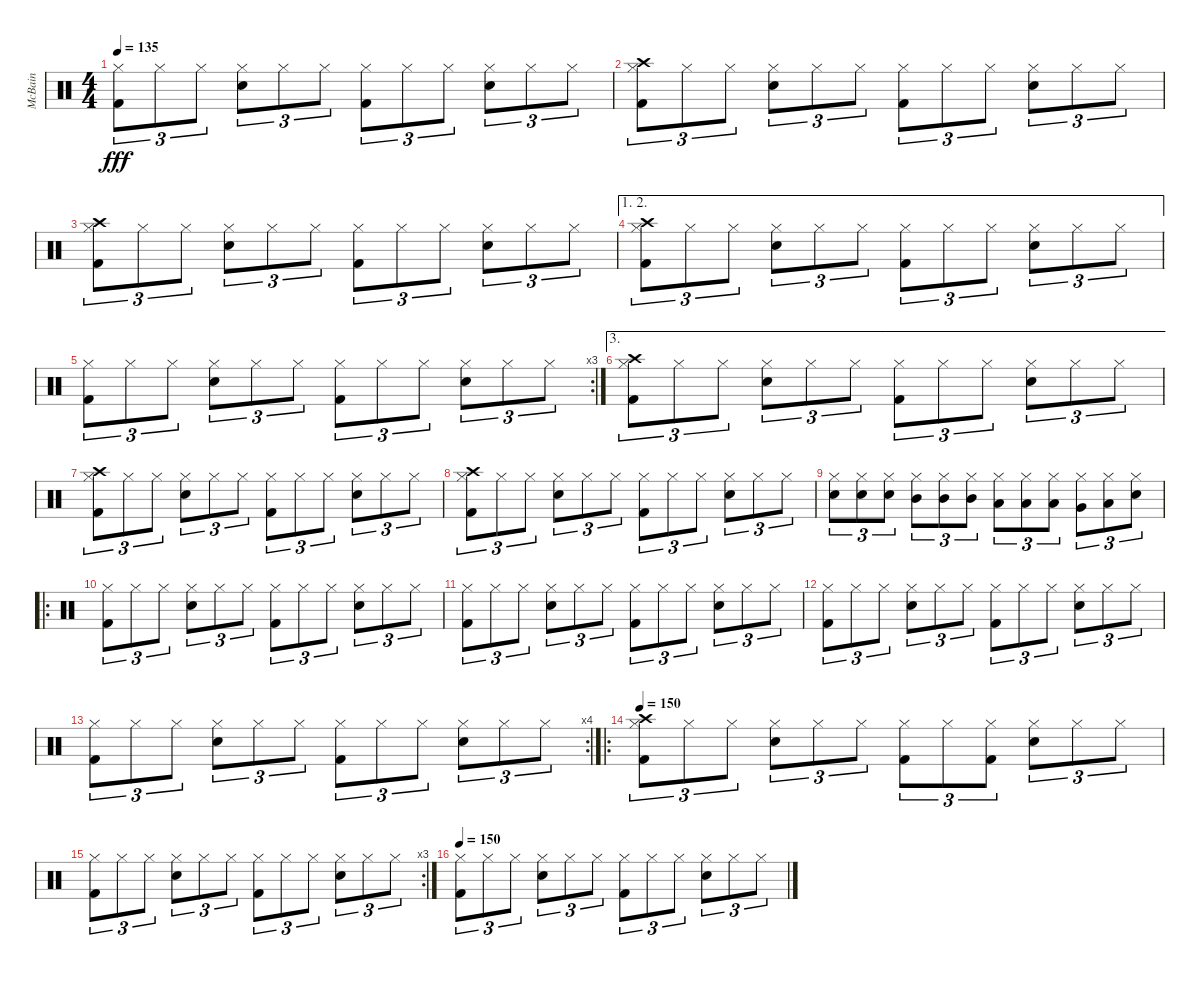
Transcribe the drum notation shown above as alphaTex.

\track ("McBain" "McBain") {instrument percussion}
\staff {score}
\articulation defaults
\ts (4 4)
\tempo 135
\clef neutral
\ks c
("Hi-Hat (closed)" "Kick (hit) 2").8{tu (3 2) dy fff} "Hi-Hat (closed)".8{tu (3 2)} "Hi-Hat (closed)".8{tu (3 2)} ("Hi-Hat (closed)" "Snare (hit) 2").8{tu (3 2)} "Hi-Hat (closed)".8{tu (3 2)} "Hi-Hat (closed)".8{tu (3 2)} ("Hi-Hat (closed)" "Kick (hit) 2").8{tu (3 2)} "Hi-Hat (closed)".8{tu (3 2)} "Hi-Hat (closed)".8{tu (3 2)} ("Hi-Hat (closed)" "Snare (hit) 2").8{tu (3 2)} "Hi-Hat (closed)".8{tu (3 2)} "Hi-Hat (closed)".8{tu (3 2)} |
("Hi-Hat (closed)" "Kick (hit) 2" "Crash high (hit)").8{tu (3 2)} "Hi-Hat (closed)".8{tu (3 2)} "Hi-Hat (closed)".8{tu (3 2)} ("Hi-Hat (closed)" "Snare (hit) 2").8{tu (3 2)} "Hi-Hat (closed)".8{tu (3 2)} "Hi-Hat (closed)".8{tu (3 2)} ("Hi-Hat (closed)" "Kick (hit) 2").8{tu (3 2)} "Hi-Hat (closed)".8{tu (3 2)} "Hi-Hat (closed)".8{tu (3 2)} ("Hi-Hat (closed)" "Snare (hit) 2").8{tu (3 2)} "Hi-Hat (closed)".8{tu (3 2)} "Hi-Hat (closed)".8{tu (3 2)} |
("Hi-Hat (closed)" "Kick (hit) 2" "Crash high (hit)").8{tu (3 2)} "Hi-Hat (closed)".8{tu (3 2)} "Hi-Hat (closed)".8{tu (3 2)} ("Hi-Hat (closed)" "Snare (hit) 2").8{tu (3 2)} "Hi-Hat (closed)".8{tu (3 2)} "Hi-Hat (closed)".8{tu (3 2)} ("Hi-Hat (closed)" "Kick (hit) 2").8{tu (3 2)} "Hi-Hat (closed)".8{tu (3 2)} "Hi-Hat (closed)".8{tu (3 2)} ("Hi-Hat (closed)" "Snare (hit) 2").8{tu (3 2)} "Hi-Hat (closed)".8{tu (3 2)} "Hi-Hat (closed)".8{tu (3 2)} |
\ae (1 2)
("Hi-Hat (closed)" "Kick (hit) 2" "Crash high (hit)").8{tu (3 2)} "Hi-Hat (closed)".8{tu (3 2)} "Hi-Hat (closed)".8{tu (3 2)} ("Hi-Hat (closed)" "Snare (hit) 2").8{tu (3 2)} "Hi-Hat (closed)".8{tu (3 2)} "Hi-Hat (closed)".8{tu (3 2)} ("Hi-Hat (closed)" "Kick (hit) 2").8{tu (3 2)} "Hi-Hat (closed)".8{tu (3 2)} "Hi-Hat (closed)".8{tu (3 2)} ("Hi-Hat (closed)" "Snare (hit) 2").8{tu (3 2)} "Hi-Hat (closed)".8{tu (3 2)} "Hi-Hat (closed)".8{tu (3 2)} |
\rc 3
("Hi-Hat (closed)" "Kick (hit) 2").8{tu (3 2)} "Hi-Hat (closed)".8{tu (3 2)} "Hi-Hat (closed)".8{tu (3 2)} ("Hi-Hat (closed)" "Snare (hit) 2").8{tu (3 2)} "Hi-Hat (closed)".8{tu (3 2)} "Hi-Hat (closed)".8{tu (3 2)} ("Hi-Hat (closed)" "Kick (hit) 2").8{tu (3 2)} "Hi-Hat (closed)".8{tu (3 2)} "Hi-Hat (closed)".8{tu (3 2)} ("Hi-Hat (closed)" "Snare (hit) 2").8{tu (3 2)} "Hi-Hat (closed)".8{tu (3 2)} "Hi-Hat (closed)".8{tu (3 2)} |
\ae 3
("Hi-Hat (closed)" "Kick (hit) 2" "Crash high (hit)").8{tu (3 2)} "Hi-Hat (closed)".8{tu (3 2)} "Hi-Hat (closed)".8{tu (3 2)} ("Hi-Hat (closed)" "Snare (hit) 2").8{tu (3 2)} "Hi-Hat (closed)".8{tu (3 2)} "Hi-Hat (closed)".8{tu (3 2)} ("Hi-Hat (closed)" "Kick (hit) 2").8{tu (3 2)} "Hi-Hat (closed)".8{tu (3 2)} "Hi-Hat (closed)".8{tu (3 2)} ("Hi-Hat (closed)" "Snare (hit) 2").8{tu (3 2)} "Hi-Hat (closed)".8{tu (3 2)} "Hi-Hat (closed)".8{tu (3 2)} |
("Hi-Hat (closed)" "Kick (hit) 2" "Crash high (hit)").8{tu (3 2)} "Hi-Hat (closed)".8{tu (3 2)} "Hi-Hat (closed)".8{tu (3 2)} ("Hi-Hat (closed)" "Snare (hit) 2").8{tu (3 2)} "Hi-Hat (closed)".8{tu (3 2)} "Hi-Hat (closed)".8{tu (3 2)} ("Hi-Hat (closed)" "Kick (hit) 2").8{tu (3 2)} "Hi-Hat (closed)".8{tu (3 2)} "Hi-Hat (closed)".8{tu (3 2)} ("Hi-Hat (closed)" "Snare (hit) 2").8{tu (3 2)} "Hi-Hat (closed)".8{tu (3 2)} "Hi-Hat (closed)".8{tu (3 2)} |
("Hi-Hat (closed)" "Kick (hit) 2" "Crash high (hit)").8{tu (3 2)} "Hi-Hat (closed)".8{tu (3 2)} "Hi-Hat (closed)".8{tu (3 2)} ("Hi-Hat (closed)" "Snare (hit) 2").8{tu (3 2)} "Hi-Hat (closed)".8{tu (3 2)} "Hi-Hat (closed)".8{tu (3 2)} ("Hi-Hat (closed)" "Kick (hit) 2").8{tu (3 2)} "Hi-Hat (closed)".8{tu (3 2)} "Hi-Hat (closed)".8{tu (3 2)} ("Hi-Hat (closed)" "Snare (hit) 2").8{tu (3 2)} "Hi-Hat (closed)".8{tu (3 2)} "Hi-Hat (closed)".8{tu (3 2)} |
("Snare (hit) 2" "Hi-Hat (closed)").8{tu (3 2)} ("Snare (hit) 2" "Hi-Hat (closed)").8{tu (3 2)} ("Snare (hit) 2" "Hi-Hat (closed)").8{tu (3 2)} ("Mid Tom (hit)" "Hi-Hat (closed)").8{tu (3 2)} ("Mid Tom (hit)" "Hi-Hat (closed)").8{tu (3 2)} ("Mid Tom (hit)" "Hi-Hat (closed)").8{tu (3 2)} ("Low Tom (hit)" "Hi-Hat (closed)").8{tu (3 2)} ("Low Tom (hit)" "Hi-Hat (closed)").8{tu (3 2)} ("Low Tom (hit)" "Hi-Hat (closed)").8{tu (3 2)} ("Very Low Tom (hit)" "Hi-Hat (closed)").8{tu (3 2)} ("Low Floor Tom (hit)" "Hi-Hat (closed)").8{tu (3 2)} ("Electric Snare (hit)" "Hi-Hat (closed)").8{tu (3 2)} |
\ro
("Hi-Hat (closed)" "Kick (hit) 2").8{tu (3 2)} "Hi-Hat (closed)".8{tu (3 2)} "Hi-Hat (closed)".8{tu (3 2)} ("Hi-Hat (closed)" "Snare (hit) 2").8{tu (3 2)} "Hi-Hat (closed)".8{tu (3 2)} "Hi-Hat (closed)".8{tu (3 2)} ("Hi-Hat (closed)" "Kick (hit) 2").8{tu (3 2)} "Hi-Hat (closed)".8{tu (3 2)} "Hi-Hat (closed)".8{tu (3 2)} ("Hi-Hat (closed)" "Snare (hit) 2").8{tu (3 2)} "Hi-Hat (closed)".8{tu (3 2)} "Hi-Hat (closed)".8{tu (3 2)} |
("Hi-Hat (closed)" "Kick (hit) 2").8{tu (3 2)} "Hi-Hat (closed)".8{tu (3 2)} "Hi-Hat (closed)".8{tu (3 2)} ("Hi-Hat (closed)" "Snare (hit) 2").8{tu (3 2)} "Hi-Hat (closed)".8{tu (3 2)} "Hi-Hat (closed)".8{tu (3 2)} ("Hi-Hat (closed)" "Kick (hit) 2").8{tu (3 2)} "Hi-Hat (closed)".8{tu (3 2)} "Hi-Hat (closed)".8{tu (3 2)} ("Hi-Hat (closed)" "Snare (hit) 2").8{tu (3 2)} "Hi-Hat (closed)".8{tu (3 2)} "Hi-Hat (closed)".8{tu (3 2)} |
("Hi-Hat (closed)" "Kick (hit) 2").8{tu (3 2)} "Hi-Hat (closed)".8{tu (3 2)} "Hi-Hat (closed)".8{tu (3 2)} ("Hi-Hat (closed)" "Snare (hit) 2").8{tu (3 2)} "Hi-Hat (closed)".8{tu (3 2)} "Hi-Hat (closed)".8{tu (3 2)} ("Hi-Hat (closed)" "Kick (hit) 2").8{tu (3 2)} "Hi-Hat (closed)".8{tu (3 2)} "Hi-Hat (closed)".8{tu (3 2)} ("Hi-Hat (closed)" "Snare (hit) 2").8{tu (3 2)} "Hi-Hat (closed)".8{tu (3 2)} "Hi-Hat (closed)".8{tu (3 2)} |
\rc 4
("Hi-Hat (closed)" "Kick (hit) 2").8{tu (3 2)} "Hi-Hat (closed)".8{tu (3 2)} "Hi-Hat (closed)".8{tu (3 2)} ("Hi-Hat (closed)" "Snare (hit) 2").8{tu (3 2)} "Hi-Hat (closed)".8{tu (3 2)} "Hi-Hat (closed)".8{tu (3 2)} ("Hi-Hat (closed)" "Kick (hit) 2").8{tu (3 2)} "Hi-Hat (closed)".8{tu (3 2)} "Hi-Hat (closed)".8{tu (3 2)} ("Hi-Hat (closed)" "Snare (hit) 2").8{tu (3 2)} "Hi-Hat (closed)".8{tu (3 2)} "Hi-Hat (closed)".8{tu (3 2)} |
\ro
\tempo 150
("Hi-Hat (closed)" "Kick (hit) 2" "Crash high (hit)").8{tu (3 2)} "Hi-Hat (closed)".8{tu (3 2)} "Hi-Hat (closed)".8{tu (3 2)} ("Hi-Hat (closed)" "Snare (hit) 2").8{tu (3 2)} "Hi-Hat (closed)".8{tu (3 2)} "Hi-Hat (closed)".8{tu (3 2)} ("Hi-Hat (closed)" "Kick (hit) 2").8{tu (3 2)} "Hi-Hat (closed)".8{tu (3 2)} ("Hi-Hat (closed)" "Kick (hit) 2").8{tu (3 2)} ("Hi-Hat (closed)" "Snare (hit) 2").8{tu (3 2)} "Hi-Hat (closed)".8{tu (3 2)} "Hi-Hat (closed)".8{tu (3 2)} |
\rc 3
("Hi-Hat (closed)" "Kick (hit) 2").8{tu (3 2)} "Hi-Hat (closed)".8{tu (3 2)} "Hi-Hat (closed)".8{tu (3 2)} ("Hi-Hat (closed)" "Snare (hit) 2").8{tu (3 2)} "Hi-Hat (closed)".8{tu (3 2)} "Hi-Hat (closed)".8{tu (3 2)} ("Hi-Hat (closed)" "Kick (hit) 2").8{tu (3 2)} "Hi-Hat (closed)".8{tu (3 2)} "Hi-Hat (closed)".8{tu (3 2)} ("Hi-Hat (closed)" "Snare (hit) 2").8{tu (3 2)} "Hi-Hat (closed)".8{tu (3 2)} "Hi-Hat (closed)".8{tu (3 2)} |
\tempo 150
("Hi-Hat (closed)" "Kick (hit) 2").8{tu (3 2)} "Hi-Hat (closed)".8{tu (3 2)} "Hi-Hat (closed)".8{tu (3 2)} ("Hi-Hat (closed)" "Snare (hit) 2").8{tu (3 2)} "Hi-Hat (closed)".8{tu (3 2)} "Hi-Hat (closed)".8{tu (3 2)} ("Hi-Hat (closed)" "Kick (hit) 2").8{tu (3 2)} "Hi-Hat (closed)".8{tu (3 2)} "Hi-Hat (closed)".8{tu (3 2)} ("Hi-Hat (closed)" "Snare (hit) 2").8{tu (3 2)} "Hi-Hat (closed)".8{tu (3 2)} "Hi-Hat (closed)".8{tu (3 2)}
